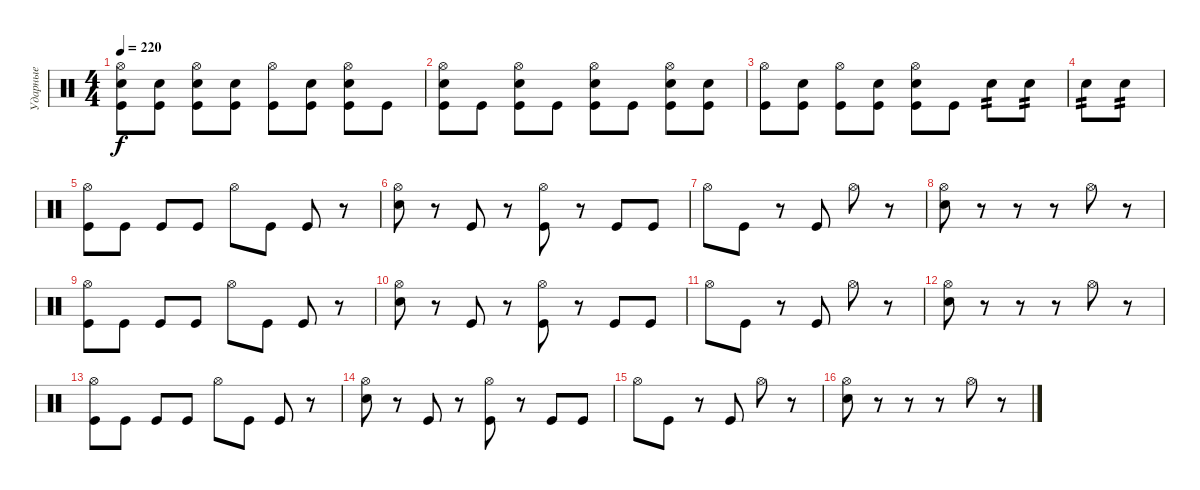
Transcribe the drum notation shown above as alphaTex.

\track ("Ударные" "Ударные") {instrument percussion}
\staff {score}
\articulation defaults
\ts (4 4)
\tempo 220
\clef neutral
\ks c
("Hi-Hat (open)" "Kick (hit)" "Electric Snare (hit)").8{dy f} ("Kick (hit)" "Electric Snare (hit)").8 ("Hi-Hat (open)" "Kick (hit)" "Electric Snare (hit)").8 ("Kick (hit)" "Electric Snare (hit)").8 ("Hi-Hat (open)" "Kick (hit)").8 ("Kick (hit)" "Electric Snare (hit)").8 ("Hi-Hat (open)" "Kick (hit)" "Electric Snare (hit)").8 "Kick (hit)".8 |
("Hi-Hat (open)" "Kick (hit)" "Electric Snare (hit)").8 "Kick (hit)".8 ("Hi-Hat (open)" "Kick (hit)" "Electric Snare (hit)").8 "Kick (hit)".8 ("Hi-Hat (open)" "Kick (hit)" "Electric Snare (hit)").8 "Kick (hit)".8 ("Hi-Hat (open)" "Kick (hit)" "Electric Snare (hit)").8 ("Kick (hit)" "Electric Snare (hit)").8 |
("Hi-Hat (open)" "Kick (hit)").8 ("Kick (hit)" "Electric Snare (hit)").8 ("Hi-Hat (open)" "Kick (hit)").8 ("Kick (hit)" "Electric Snare (hit)").8 ("Hi-Hat (open)" "Kick (hit)" "Electric Snare (hit)").8 "Kick (hit)".8 "Electric Snare (hit)".8{tp 2} "Electric Snare (hit)".8{tp 2} |
"Electric Snare (hit)".8{tp 2} "Electric Snare (hit)".8{tp 2} |
("Hi-Hat (open)" "Kick (hit)").8 "Kick (hit)".8 "Kick (hit)".8 "Kick (hit)".8 "Hi-Hat (open)".8 "Kick (hit)".8 "Kick (hit)".8 r.8 |
("Hi-Hat (open)" "Electric Snare (hit)").8 r.8 "Kick (hit)".8 r.8 ("Hi-Hat (open)" "Kick (hit)").8 r.8 "Kick (hit)".8 "Kick (hit)".8 |
"Hi-Hat (open)".8 "Kick (hit)".8 r.8 "Kick (hit)".8 "Hi-Hat (open)".8 r.8 |
("Hi-Hat (open)" "Electric Snare (hit)").8 r.8 r.8 r.8 "Hi-Hat (open)".8 r.8 |
("Hi-Hat (open)" "Kick (hit)").8 "Kick (hit)".8 "Kick (hit)".8 "Kick (hit)".8 "Hi-Hat (open)".8 "Kick (hit)".8 "Kick (hit)".8 r.8 |
("Hi-Hat (open)" "Electric Snare (hit)").8 r.8 "Kick (hit)".8 r.8 ("Hi-Hat (open)" "Kick (hit)").8 r.8 "Kick (hit)".8 "Kick (hit)".8 |
"Hi-Hat (open)".8 "Kick (hit)".8 r.8 "Kick (hit)".8 "Hi-Hat (open)".8 r.8 |
("Hi-Hat (open)" "Electric Snare (hit)").8 r.8 r.8 r.8 "Hi-Hat (open)".8 r.8 |
("Hi-Hat (open)" "Kick (hit)").8 "Kick (hit)".8 "Kick (hit)".8 "Kick (hit)".8 "Hi-Hat (open)".8 "Kick (hit)".8 "Kick (hit)".8 r.8 |
("Hi-Hat (open)" "Electric Snare (hit)").8 r.8 "Kick (hit)".8 r.8 ("Hi-Hat (open)" "Kick (hit)").8 r.8 "Kick (hit)".8 "Kick (hit)".8 |
"Hi-Hat (open)".8 "Kick (hit)".8 r.8 "Kick (hit)".8 "Hi-Hat (open)".8 r.8 |
("Hi-Hat (open)" "Electric Snare (hit)").8 r.8 r.8 r.8 "Hi-Hat (open)".8 r.8
